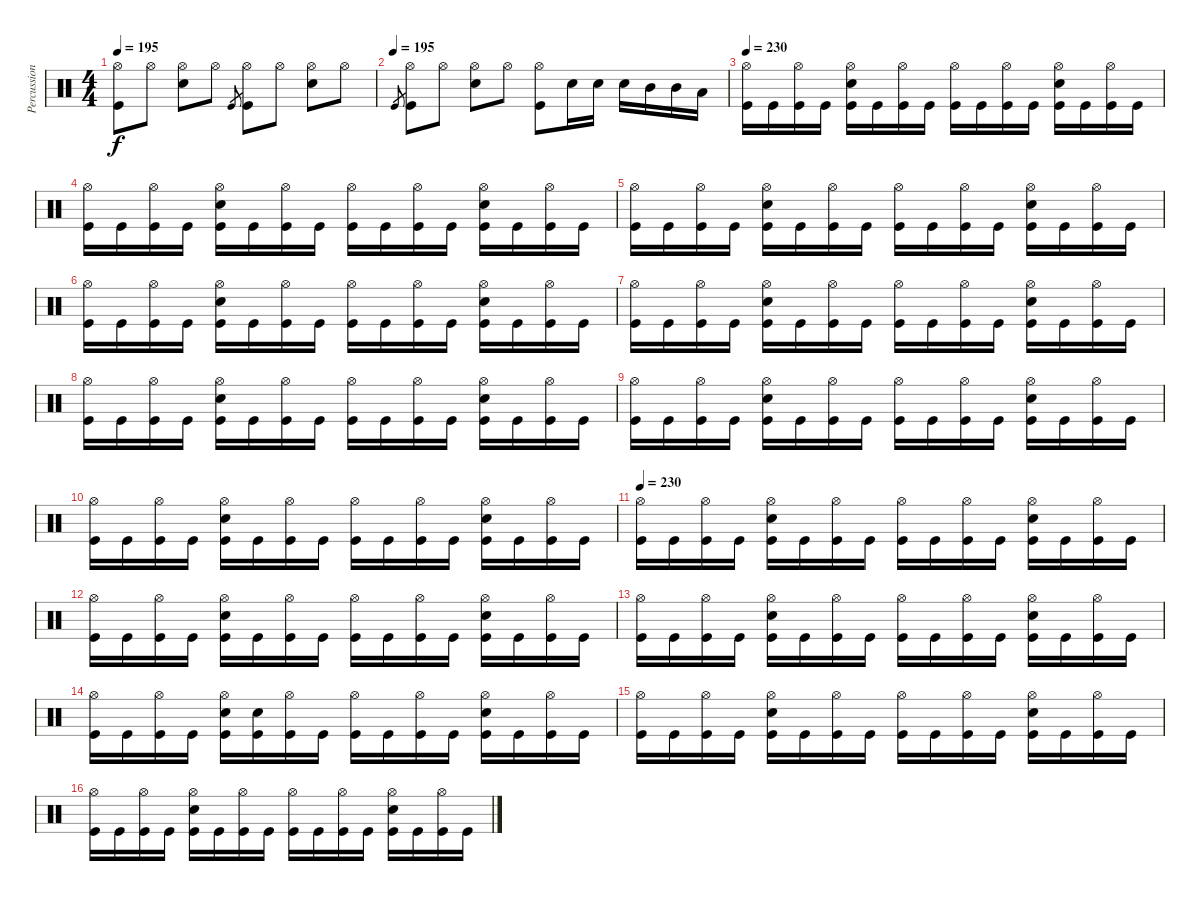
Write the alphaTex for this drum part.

\track ("Percussion" "Percussion") {instrument percussion}
\staff {score}
\articulation defaults
\ts (4 4)
\tempo 195
\clef neutral
\ks c
("Hi-Hat (open)" "Kick (hit)").8{dy f} "Hi-Hat (open)".8 ("Hi-Hat (open)" "Electric Snare (hit)").8 "Hi-Hat (open)".8 "Kick (hit)".8{gr} ("Hi-Hat (open)" "Kick (hit)").8 "Hi-Hat (open)".8 ("Hi-Hat (open)" "Electric Snare (hit)").8 "Hi-Hat (open)".8 |
\tempo (195)
"Kick (hit)".8{gr} ("Hi-Hat (open)" "Kick (hit)").8 "Hi-Hat (open)".8 ("Hi-Hat (open)" "Electric Snare (hit)").8 "Hi-Hat (open)".8 ("Hi-Hat (open)" "Kick (hit)").8 "Electric Snare (hit)".16 "Electric Snare (hit)".16 "Electric Snare (hit)".16 "Mid Tom (hit)".16 "Mid Tom (hit)".16 "Low Tom (hit)".16 |
\tempo 230
("Hi-Hat (open)" "Kick (hit)").16 "Kick (hit)".16 ("Hi-Hat (open)" "Kick (hit)").16 "Kick (hit)".16 ("Hi-Hat (open)" "Electric Snare (hit)" "Kick (hit)").16 "Kick (hit)".16 ("Hi-Hat (open)" "Kick (hit)").16 "Kick (hit)".16 ("Hi-Hat (open)" "Kick (hit)").16 "Kick (hit)".16 ("Hi-Hat (open)" "Kick (hit)").16 "Kick (hit)".16 ("Hi-Hat (open)" "Electric Snare (hit)" "Kick (hit)").16 "Kick (hit)".16 ("Hi-Hat (open)" "Kick (hit)").16 "Kick (hit)".16 |
("Hi-Hat (open)" "Kick (hit)").16 "Kick (hit)".16 ("Hi-Hat (open)" "Kick (hit)").16 "Kick (hit)".16 ("Hi-Hat (open)" "Electric Snare (hit)" "Kick (hit)").16 "Kick (hit)".16 ("Hi-Hat (open)" "Kick (hit)").16 "Kick (hit)".16 ("Hi-Hat (open)" "Kick (hit)").16 "Kick (hit)".16 ("Hi-Hat (open)" "Kick (hit)").16 "Kick (hit)".16 ("Hi-Hat (open)" "Electric Snare (hit)" "Kick (hit)").16 "Kick (hit)".16 ("Hi-Hat (open)" "Kick (hit)").16 "Kick (hit)".16 |
("Hi-Hat (open)" "Kick (hit)").16 "Kick (hit)".16 ("Hi-Hat (open)" "Kick (hit)").16 "Kick (hit)".16 ("Hi-Hat (open)" "Electric Snare (hit)" "Kick (hit)").16 "Kick (hit)".16 ("Hi-Hat (open)" "Kick (hit)").16 "Kick (hit)".16 ("Hi-Hat (open)" "Kick (hit)").16 "Kick (hit)".16 ("Hi-Hat (open)" "Kick (hit)").16 "Kick (hit)".16 ("Hi-Hat (open)" "Electric Snare (hit)" "Kick (hit)").16 "Kick (hit)".16 ("Hi-Hat (open)" "Kick (hit)").16 "Kick (hit)".16 |
("Hi-Hat (open)" "Kick (hit)").16 "Kick (hit)".16 ("Hi-Hat (open)" "Kick (hit)").16 "Kick (hit)".16 ("Hi-Hat (open)" "Electric Snare (hit)" "Kick (hit)").16 "Kick (hit)".16 ("Hi-Hat (open)" "Kick (hit)").16 "Kick (hit)".16 ("Hi-Hat (open)" "Kick (hit)").16 "Kick (hit)".16 ("Hi-Hat (open)" "Kick (hit)").16 "Kick (hit)".16 ("Hi-Hat (open)" "Electric Snare (hit)" "Kick (hit)").16 "Kick (hit)".16 ("Hi-Hat (open)" "Kick (hit)").16 "Kick (hit)".16 |
("Hi-Hat (open)" "Kick (hit)").16 "Kick (hit)".16 ("Hi-Hat (open)" "Kick (hit)").16 "Kick (hit)".16 ("Hi-Hat (open)" "Electric Snare (hit)" "Kick (hit)").16 "Kick (hit)".16 ("Hi-Hat (open)" "Kick (hit)").16 "Kick (hit)".16 ("Hi-Hat (open)" "Kick (hit)").16 "Kick (hit)".16 ("Hi-Hat (open)" "Kick (hit)").16 "Kick (hit)".16 ("Hi-Hat (open)" "Electric Snare (hit)" "Kick (hit)").16 "Kick (hit)".16 ("Hi-Hat (open)" "Kick (hit)").16 "Kick (hit)".16 |
("Hi-Hat (open)" "Kick (hit)").16 "Kick (hit)".16 ("Hi-Hat (open)" "Kick (hit)").16 "Kick (hit)".16 ("Hi-Hat (open)" "Electric Snare (hit)" "Kick (hit)").16 "Kick (hit)".16 ("Hi-Hat (open)" "Kick (hit)").16 "Kick (hit)".16 ("Hi-Hat (open)" "Kick (hit)").16 "Kick (hit)".16 ("Hi-Hat (open)" "Kick (hit)").16 "Kick (hit)".16 ("Hi-Hat (open)" "Electric Snare (hit)" "Kick (hit)").16 "Kick (hit)".16 ("Hi-Hat (open)" "Kick (hit)").16 "Kick (hit)".16 |
("Hi-Hat (open)" "Kick (hit)").16 "Kick (hit)".16 ("Hi-Hat (open)" "Kick (hit)").16 "Kick (hit)".16 ("Hi-Hat (open)" "Electric Snare (hit)" "Kick (hit)").16 "Kick (hit)".16 ("Hi-Hat (open)" "Kick (hit)").16 "Kick (hit)".16 ("Hi-Hat (open)" "Kick (hit)").16 "Kick (hit)".16 ("Hi-Hat (open)" "Kick (hit)").16 "Kick (hit)".16 ("Hi-Hat (open)" "Electric Snare (hit)" "Kick (hit)").16 "Kick (hit)".16 ("Hi-Hat (open)" "Kick (hit)").16 "Kick (hit)".16 |
("Hi-Hat (open)" "Kick (hit)").16 "Kick (hit)".16 ("Hi-Hat (open)" "Kick (hit)").16 "Kick (hit)".16 ("Hi-Hat (open)" "Electric Snare (hit)" "Kick (hit)").16 "Kick (hit)".16 ("Hi-Hat (open)" "Kick (hit)").16 "Kick (hit)".16 ("Hi-Hat (open)" "Kick (hit)").16 "Kick (hit)".16 ("Hi-Hat (open)" "Kick (hit)").16 "Kick (hit)".16 ("Hi-Hat (open)" "Electric Snare (hit)" "Kick (hit)").16 "Kick (hit)".16 ("Hi-Hat (open)" "Kick (hit)").16 "Kick (hit)".16 |
\tempo 230
("Hi-Hat (open)" "Kick (hit)").16 "Kick (hit)".16 ("Hi-Hat (open)" "Kick (hit)").16 "Kick (hit)".16 ("Hi-Hat (open)" "Electric Snare (hit)" "Kick (hit)").16 "Kick (hit)".16 ("Hi-Hat (open)" "Kick (hit)").16 "Kick (hit)".16 ("Hi-Hat (open)" "Kick (hit)").16 "Kick (hit)".16 ("Hi-Hat (open)" "Kick (hit)").16 "Kick (hit)".16 ("Hi-Hat (open)" "Electric Snare (hit)" "Kick (hit)").16 "Kick (hit)".16 ("Hi-Hat (open)" "Kick (hit)").16 "Kick (hit)".16 |
("Hi-Hat (open)" "Kick (hit)").16 "Kick (hit)".16 ("Hi-Hat (open)" "Kick (hit)").16 "Kick (hit)".16 ("Hi-Hat (open)" "Electric Snare (hit)" "Kick (hit)").16 "Kick (hit)".16 ("Hi-Hat (open)" "Kick (hit)").16 "Kick (hit)".16 ("Hi-Hat (open)" "Kick (hit)").16 "Kick (hit)".16 ("Hi-Hat (open)" "Kick (hit)").16 "Kick (hit)".16 ("Hi-Hat (open)" "Electric Snare (hit)" "Kick (hit)").16 "Kick (hit)".16 ("Hi-Hat (open)" "Kick (hit)").16 "Kick (hit)".16 |
("Hi-Hat (open)" "Kick (hit)").16 "Kick (hit)".16 ("Hi-Hat (open)" "Kick (hit)").16 "Kick (hit)".16 ("Hi-Hat (open)" "Electric Snare (hit)" "Kick (hit)").16 "Kick (hit)".16 ("Hi-Hat (open)" "Kick (hit)").16 "Kick (hit)".16 ("Hi-Hat (open)" "Kick (hit)").16 "Kick (hit)".16 ("Hi-Hat (open)" "Kick (hit)").16 "Kick (hit)".16 ("Hi-Hat (open)" "Electric Snare (hit)" "Kick (hit)").16 "Kick (hit)".16 ("Hi-Hat (open)" "Kick (hit)").16 "Kick (hit)".16 |
("Hi-Hat (open)" "Kick (hit)").16 "Kick (hit)".16 ("Hi-Hat (open)" "Kick (hit)").16 "Kick (hit)".16 ("Hi-Hat (open)" "Electric Snare (hit)" "Kick (hit)").16 ("Electric Snare (hit)" "Kick (hit)").16 ("Hi-Hat (open)" "Kick (hit)").16 "Kick (hit)".16 ("Hi-Hat (open)" "Kick (hit)").16 "Kick (hit)".16 ("Hi-Hat (open)" "Kick (hit)").16 "Kick (hit)".16 ("Hi-Hat (open)" "Electric Snare (hit)" "Kick (hit)").16 "Kick (hit)".16 ("Hi-Hat (open)" "Kick (hit)").16 "Kick (hit)".16 |
("Hi-Hat (open)" "Kick (hit)").16 "Kick (hit)".16 ("Hi-Hat (open)" "Kick (hit)").16 "Kick (hit)".16 ("Hi-Hat (open)" "Electric Snare (hit)" "Kick (hit)").16 "Kick (hit)".16 ("Hi-Hat (open)" "Kick (hit)").16 "Kick (hit)".16 ("Hi-Hat (open)" "Kick (hit)").16 "Kick (hit)".16 ("Hi-Hat (open)" "Kick (hit)").16 "Kick (hit)".16 ("Hi-Hat (open)" "Electric Snare (hit)" "Kick (hit)").16 "Kick (hit)".16 ("Hi-Hat (open)" "Kick (hit)").16 "Kick (hit)".16 |
("Hi-Hat (open)" "Kick (hit)").16 "Kick (hit)".16 ("Hi-Hat (open)" "Kick (hit)").16 "Kick (hit)".16 ("Hi-Hat (open)" "Electric Snare (hit)" "Kick (hit)").16 "Kick (hit)".16 ("Hi-Hat (open)" "Kick (hit)").16 "Kick (hit)".16 ("Hi-Hat (open)" "Kick (hit)").16 "Kick (hit)".16 ("Hi-Hat (open)" "Kick (hit)").16 "Kick (hit)".16 ("Hi-Hat (open)" "Electric Snare (hit)" "Kick (hit)").16 "Kick (hit)".16 ("Hi-Hat (open)" "Kick (hit)").16 "Kick (hit)".16
